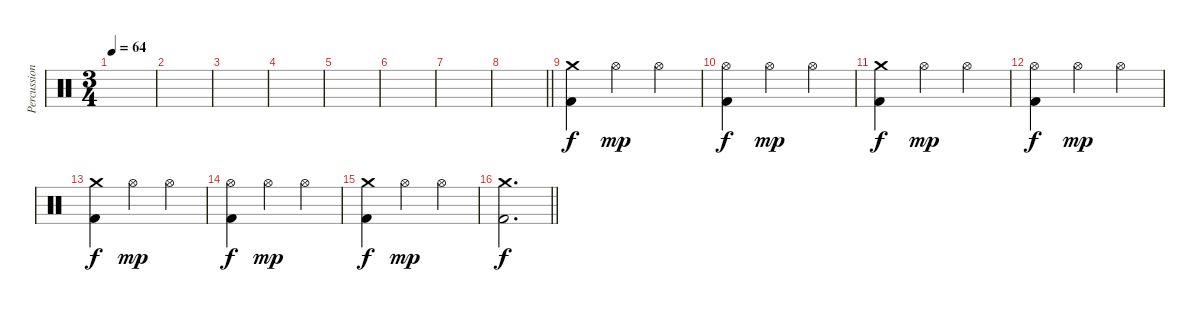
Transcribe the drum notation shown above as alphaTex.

\track ("Percussion" "Percussion") {instrument percussion}
\staff {score}
\articulation defaults
\ts (3 4)
\tempo 64
\clef neutral
\ks c
|
|
|
|
|
|
|
\barLineRight lightlight
|
("Crash medium (hit)" "Kick (hit) 2").4 "Hi-Hat (open)".4{dy mp} "Hi-Hat (open)".4 |
("Hi-Hat (open)" "Kick (hit) 2").4{dy f} "Hi-Hat (open)".4{dy mp} "Hi-Hat (open)".4 |
("Crash medium (hit)" "Kick (hit) 2").4{dy f} "Hi-Hat (open)".4{dy mp} "Hi-Hat (open)".4 |
("Hi-Hat (open)" "Kick (hit) 2").4{dy f} "Hi-Hat (open)".4{dy mp} "Hi-Hat (open)".4 |
("Crash medium (hit)" "Kick (hit) 2").4{dy f} "Hi-Hat (open)".4{dy mp} "Hi-Hat (open)".4 |
("Hi-Hat (open)" "Kick (hit) 2").4{dy f} "Hi-Hat (open)".4{dy mp} "Hi-Hat (open)".4 |
("Crash medium (hit)" "Kick (hit) 2").4{dy f} "Hi-Hat (open)".4{dy mp} "Hi-Hat (open)".4 |
\barLineRight lightlight
("Crash medium (hit)" "Kick (hit) 2").2{d dy f}
